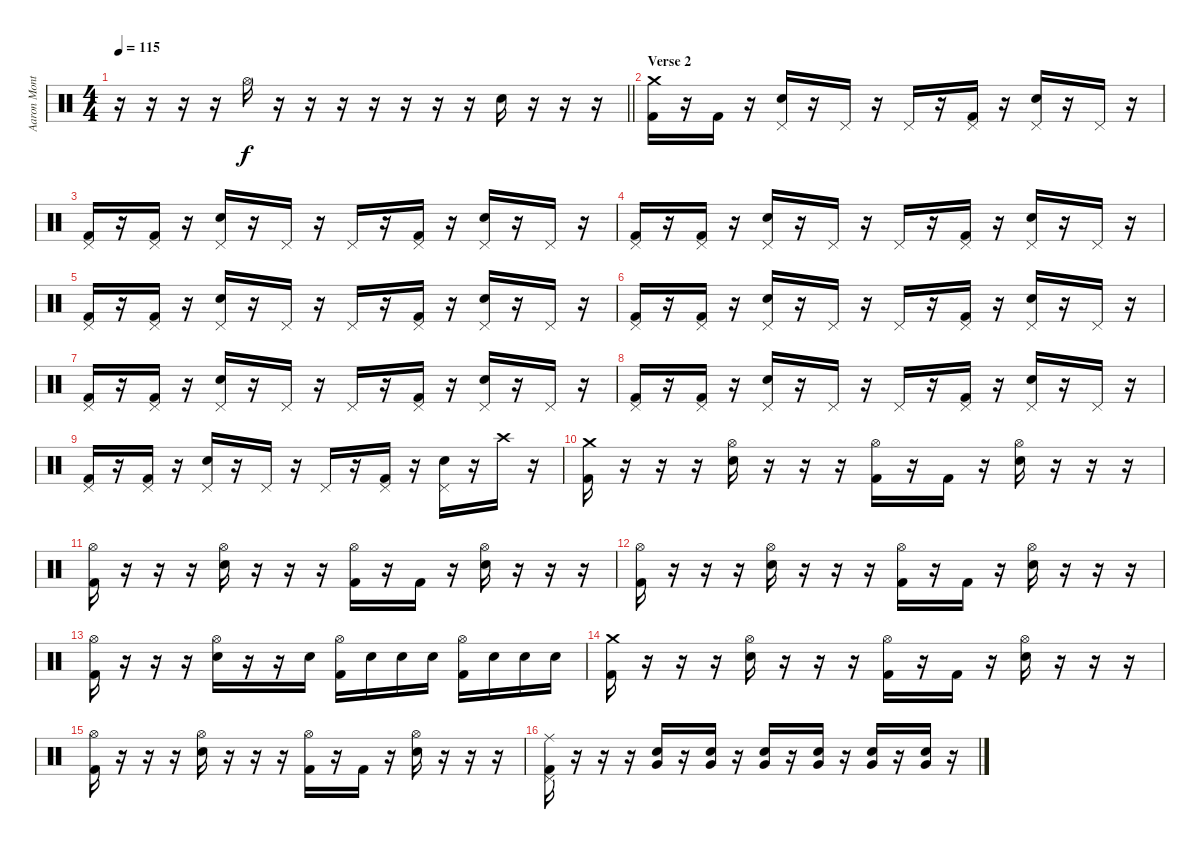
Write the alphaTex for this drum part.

\track ("Aaron Montgomery" "Aaron Mont") {instrument percussion}
\staff {score}
\articulation defaults
\ts (4 4)
\tempo 115
\clef neutral
\barLineRight lightlight
\ks c
r.16{dy f} r.16 r.16 r.16 "Hi-Hat (open)".16 r.16 r.16 r.16 r.16 r.16 r.16 r.16 "Snare (hit) 2".16 r.16 r.16 r.16 |
\section ("" "Verse 2")
("Crash medium (hit)" "Kick (hit) 2").16 r.16 "Kick (hit) 2".16 r.16 ("Pedal Hi-Hat (hit)" "Snare (hit) 2").16 r.16 "Pedal Hi-Hat (hit)".16 r.16 "Pedal Hi-Hat (hit)".16 r.16 ("Pedal Hi-Hat (hit)" "Kick (hit) 2").16 r.16 ("Pedal Hi-Hat (hit)" "Snare (hit) 2").16 r.16 "Pedal Hi-Hat (hit)".16 r.16 |
("Pedal Hi-Hat (hit)" "Kick (hit) 2").16 r.16 ("Pedal Hi-Hat (hit)" "Kick (hit) 2").16 r.16 ("Pedal Hi-Hat (hit)" "Snare (hit) 2").16 r.16 "Pedal Hi-Hat (hit)".16 r.16 "Pedal Hi-Hat (hit)".16 r.16 ("Pedal Hi-Hat (hit)" "Kick (hit) 2").16 r.16 ("Pedal Hi-Hat (hit)" "Snare (hit) 2").16 r.16 "Pedal Hi-Hat (hit)".16 r.16 |
("Pedal Hi-Hat (hit)" "Kick (hit) 2").16 r.16 ("Pedal Hi-Hat (hit)" "Kick (hit) 2").16 r.16 ("Pedal Hi-Hat (hit)" "Snare (hit) 2").16 r.16 "Pedal Hi-Hat (hit)".16 r.16 "Pedal Hi-Hat (hit)".16 r.16 ("Pedal Hi-Hat (hit)" "Kick (hit) 2").16 r.16 ("Pedal Hi-Hat (hit)" "Snare (hit) 2").16 r.16 "Pedal Hi-Hat (hit)".16 r.16 |
("Pedal Hi-Hat (hit)" "Kick (hit) 2").16 r.16 ("Pedal Hi-Hat (hit)" "Kick (hit) 2").16 r.16 ("Pedal Hi-Hat (hit)" "Snare (hit) 2").16 r.16 "Pedal Hi-Hat (hit)".16 r.16 "Pedal Hi-Hat (hit)".16 r.16 ("Pedal Hi-Hat (hit)" "Kick (hit) 2").16 r.16 ("Pedal Hi-Hat (hit)" "Snare (hit) 2").16 r.16 "Pedal Hi-Hat (hit)".16 r.16 |
("Pedal Hi-Hat (hit)" "Kick (hit) 2").16 r.16 ("Pedal Hi-Hat (hit)" "Kick (hit) 2").16 r.16 ("Pedal Hi-Hat (hit)" "Snare (hit) 2").16 r.16 "Pedal Hi-Hat (hit)".16 r.16 "Pedal Hi-Hat (hit)".16 r.16 ("Pedal Hi-Hat (hit)" "Kick (hit) 2").16 r.16 ("Pedal Hi-Hat (hit)" "Snare (hit) 2").16 r.16 "Pedal Hi-Hat (hit)".16 r.16 |
("Pedal Hi-Hat (hit)" "Kick (hit) 2").16 r.16 ("Pedal Hi-Hat (hit)" "Kick (hit) 2").16 r.16 ("Pedal Hi-Hat (hit)" "Snare (hit) 2").16 r.16 "Pedal Hi-Hat (hit)".16 r.16 "Pedal Hi-Hat (hit)".16 r.16 ("Pedal Hi-Hat (hit)" "Kick (hit) 2").16 r.16 ("Pedal Hi-Hat (hit)" "Snare (hit) 2").16 r.16 "Pedal Hi-Hat (hit)".16 r.16 |
("Pedal Hi-Hat (hit)" "Kick (hit) 2").16 r.16 ("Pedal Hi-Hat (hit)" "Kick (hit) 2").16 r.16 ("Pedal Hi-Hat (hit)" "Snare (hit) 2").16 r.16 "Pedal Hi-Hat (hit)".16 r.16 "Pedal Hi-Hat (hit)".16 r.16 ("Pedal Hi-Hat (hit)" "Kick (hit) 2").16 r.16 ("Pedal Hi-Hat (hit)" "Snare (hit) 2").16 r.16 "Pedal Hi-Hat (hit)".16 r.16 |
("Pedal Hi-Hat (hit)" "Kick (hit) 2").16 r.16 ("Pedal Hi-Hat (hit)" "Kick (hit) 2").16 r.16 ("Pedal Hi-Hat (hit)" "Snare (hit) 2").16 r.16 "Pedal Hi-Hat (hit)".16 r.16 "Pedal Hi-Hat (hit)".16 r.16 ("Pedal Hi-Hat (hit)" "Kick (hit) 2").16 r.16 ("Pedal Hi-Hat (hit)" "Snare (hit) 2").16 r.16 "Crash high (hit)".16 r.16 |
("Crash medium (hit)" "Kick (hit) 2").16 r.16 r.16 r.16 ("Hi-Hat (open)" "Snare (hit) 2").16 r.16 r.16 r.16 ("Hi-Hat (open)" "Kick (hit) 2").16 r.16 "Kick (hit) 2".16 r.16 ("Hi-Hat (open)" "Snare (hit) 2").16 r.16 r.16 r.16 |
("Hi-Hat (open)" "Kick (hit) 2").16 r.16 r.16 r.16 ("Hi-Hat (open)" "Snare (hit) 2").16 r.16 r.16 r.16 ("Hi-Hat (open)" "Kick (hit) 2").16 r.16 "Kick (hit) 2".16 r.16 ("Hi-Hat (open)" "Snare (hit) 2").16 r.16 r.16 r.16 |
("Hi-Hat (open)" "Kick (hit) 2").16 r.16 r.16 r.16 ("Hi-Hat (open)" "Snare (hit) 2").16 r.16 r.16 r.16 ("Hi-Hat (open)" "Kick (hit) 2").16 r.16 "Kick (hit) 2".16 r.16 ("Hi-Hat (open)" "Snare (hit) 2").16 r.16 r.16 r.16 |
("Hi-Hat (open)" "Kick (hit) 2").16 r.16 r.16 r.16 ("Hi-Hat (open)" "Snare (hit) 2").16 r.16 r.16 "Snare (hit) 2".16 ("Hi-Hat (open)" "Kick (hit) 2").16 "Snare (hit) 2".16 "Snare (hit) 2".16 "Snare (hit) 2".16 ("Hi-Hat (open)" "Kick (hit) 2").16 "Snare (hit) 2".16 "Snare (hit) 2".16 "Snare (hit) 2".16 |
("Crash medium (hit)" "Kick (hit) 2").16 r.16 r.16 r.16 ("Hi-Hat (open)" "Snare (hit) 2").16 r.16 r.16 r.16 ("Hi-Hat (open)" "Kick (hit) 2").16 r.16 "Kick (hit) 2".16 r.16 ("Hi-Hat (open)" "Snare (hit) 2").16 r.16 r.16 r.16 |
("Hi-Hat (open)" "Kick (hit) 2").16 r.16 r.16 r.16 ("Hi-Hat (open)" "Snare (hit) 2").16 r.16 r.16 r.16 ("Hi-Hat (open)" "Kick (hit) 2").16 r.16 "Kick (hit) 2".16 r.16 ("Hi-Hat (open)" "Snare (hit) 2").16 r.16 r.16 r.16 |
("Pedal Hi-Hat (hit)" "Ride (middle)" "Kick (hit) 2").16 r.16 r.16 r.16 ("Very Low Tom (hit)" "Snare (hit) 2").16 r.16 ("Very Low Tom (hit)" "Snare (hit) 2").16 r.16 ("Very Low Tom (hit)" "Snare (hit) 2").16 r.16 ("Very Low Tom (hit)" "Snare (hit) 2").16 r.16 ("Very Low Tom (hit)" "Snare (hit) 2").16 r.16 ("Very Low Tom (hit)" "Snare (hit) 2").16 r.16
